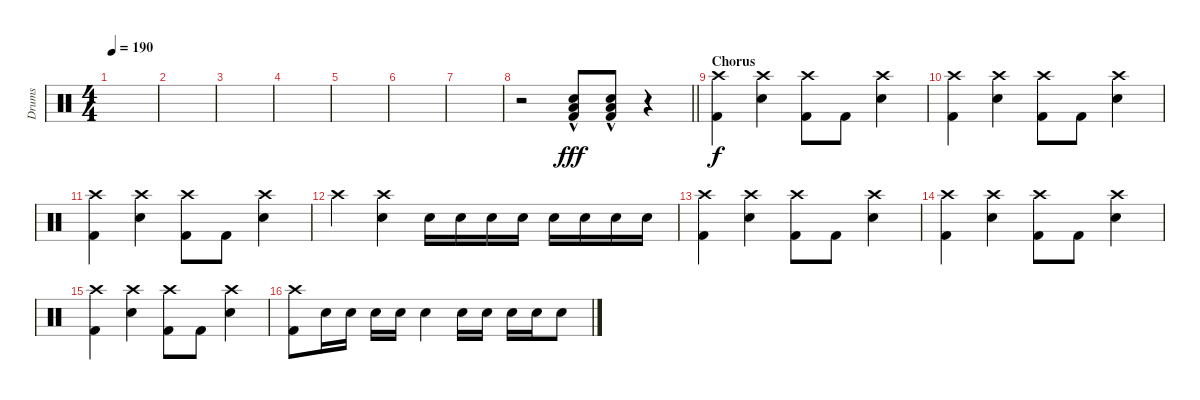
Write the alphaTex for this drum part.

\track ("Drums" "Drums") {instrument percussion}
\staff {score}
\articulation defaults
\ts (4 4)
\tempo 190
\clef neutral
\ks c
|
|
|
|
|
|
|
\barLineRight lightlight
r.2 ("Electric Snare (hit)"{hac} "Low Floor Tom (hit)"{hac} "Kick (hit) 2"{hac}).8{dy fff} ("Electric Snare (hit)"{hac} "Low Floor Tom (hit)"{hac} "Kick (hit) 2"{hac}).8 r.4 |
\section ("" "Chorus")
("Crash high (hit)" "Kick (hit) 2").4{dy f} ("Crash high (hit)" "Electric Snare (hit)").4 ("Crash high (hit)" "Kick (hit) 2").8 "Kick (hit) 2".8 ("Crash high (hit)" "Electric Snare (hit)").4 |
("Crash high (hit)" "Kick (hit) 2").4 ("Crash high (hit)" "Electric Snare (hit)").4 ("Crash high (hit)" "Kick (hit) 2").8 "Kick (hit) 2".8 ("Crash high (hit)" "Electric Snare (hit)").4 |
("Crash high (hit)" "Kick (hit) 2").4 ("Crash high (hit)" "Electric Snare (hit)").4 ("Crash high (hit)" "Kick (hit) 2").8 "Kick (hit) 2".8 ("Crash high (hit)" "Electric Snare (hit)").4 |
"Crash high (hit)".4 ("Crash high (hit)" "Electric Snare (hit)").4 "Electric Snare (hit)".16 "Electric Snare (hit)".16 "Electric Snare (hit)".16 "Electric Snare (hit)".16 "Electric Snare (hit)".16 "Electric Snare (hit)".16 "Electric Snare (hit)".16 "Electric Snare (hit)".16 |
("Crash high (hit)" "Kick (hit) 2").4 ("Crash high (hit)" "Electric Snare (hit)").4 ("Crash high (hit)" "Kick (hit) 2").8 "Kick (hit) 2".8 ("Crash high (hit)" "Electric Snare (hit)").4 |
("Crash high (hit)" "Kick (hit) 2").4 ("Crash high (hit)" "Electric Snare (hit)").4 ("Crash high (hit)" "Kick (hit) 2").8 "Kick (hit) 2".8 ("Crash high (hit)" "Electric Snare (hit)").4 |
("Crash high (hit)" "Kick (hit) 2").4 ("Crash high (hit)" "Electric Snare (hit)").4 ("Crash high (hit)" "Kick (hit) 2").8 "Kick (hit) 2".8 ("Crash high (hit)" "Electric Snare (hit)").4 |
("Crash high (hit)" "Kick (hit) 2").8 "Electric Snare (hit)".16 "Electric Snare (hit)".16 "Electric Snare (hit)".16 "Electric Snare (hit)".16 "Electric Snare (hit)".4 "Electric Snare (hit)".16 "Electric Snare (hit)".16 "Electric Snare (hit)".16 "Electric Snare (hit)".16 "Electric Snare (hit)".8
